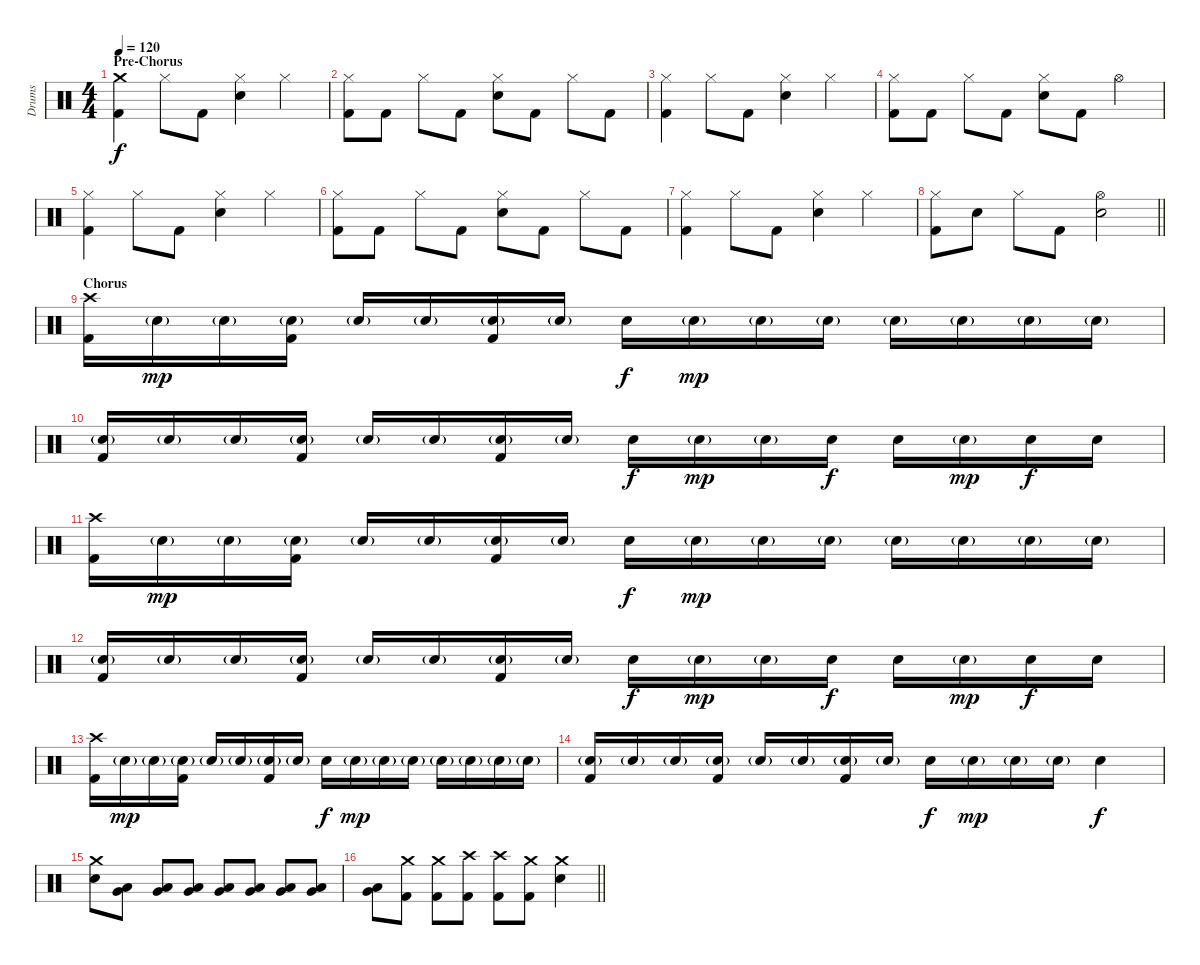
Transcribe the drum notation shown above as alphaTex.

\track ("Drums" "Drums") {instrument percussion}
\staff {score}
\articulation defaults
\ts (4 4)
\section ("" "Pre-Chorus")
\tempo 120
\clef neutral
\ks c
("Crash medium (hit)" "Kick (hit) 2").4{dy f} "Hi-Hat (closed)".8 "Kick (hit) 2".8 ("Hi-Hat (closed)" "Electric Snare (hit)").4 "Hi-Hat (closed)".4 |
("Hi-Hat (closed)" "Kick (hit) 2").8 "Kick (hit) 2".8 "Hi-Hat (closed)".8 "Kick (hit) 2".8 ("Hi-Hat (closed)" "Electric Snare (hit)").8 "Kick (hit) 2".8 "Hi-Hat (closed)".8 "Kick (hit) 2".8 |
("Hi-Hat (closed)" "Kick (hit) 2").4 "Hi-Hat (closed)".8 "Kick (hit) 2".8 ("Hi-Hat (closed)" "Electric Snare (hit)").4 "Hi-Hat (closed)".4 |
("Hi-Hat (closed)" "Kick (hit) 2").8 "Kick (hit) 2".8 "Hi-Hat (closed)".8 "Kick (hit) 2".8 ("Hi-Hat (closed)" "Electric Snare (hit)").8 "Kick (hit) 2".8 "Hi-Hat (open)".4 |
("Hi-Hat (closed)" "Kick (hit) 2").4 "Hi-Hat (closed)".8 "Kick (hit) 2".8 ("Hi-Hat (closed)" "Electric Snare (hit)").4 "Hi-Hat (closed)".4 |
("Hi-Hat (closed)" "Kick (hit) 2").8 "Kick (hit) 2".8 "Hi-Hat (closed)".8 "Kick (hit) 2".8 ("Hi-Hat (closed)" "Electric Snare (hit)").8 "Kick (hit) 2".8 "Hi-Hat (closed)".8 "Kick (hit) 2".8 |
("Hi-Hat (closed)" "Kick (hit) 2").4 "Hi-Hat (closed)".8 "Kick (hit) 2".8 ("Hi-Hat (closed)" "Electric Snare (hit)").4 "Hi-Hat (closed)".4 |
\barLineRight lightlight
("Hi-Hat (closed)" "Kick (hit) 2").8 "Electric Snare (hit)".8 "Hi-Hat (closed)".8 "Kick (hit) 2".8 ("Hi-Hat (open)" "Electric Snare (hit)").2 |
\section ("" "Chorus")
("Crash high (hit)" "Kick (hit) 2").16 "Electric Snare (hit)"{g}.16{dy mp} "Electric Snare (hit)"{g}.16 ("Electric Snare (hit)"{g} "Kick (hit) 2").16 "Electric Snare (hit)"{g}.16 "Electric Snare (hit)"{g}.16 ("Electric Snare (hit)"{g} "Kick (hit) 2").16 "Electric Snare (hit)"{g}.16 "Electric Snare (hit)".16{dy f} "Electric Snare (hit)"{g}.16{dy mp} "Electric Snare (hit)"{g}.16 "Electric Snare (hit)"{g}.16 "Electric Snare (hit)"{g}.16 "Electric Snare (hit)"{g}.16 "Electric Snare (hit)"{g}.16 "Electric Snare (hit)"{g}.16 |
("Electric Snare (hit)"{g} "Kick (hit) 2").16 "Electric Snare (hit)"{g}.16 "Electric Snare (hit)"{g}.16 ("Electric Snare (hit)"{g} "Kick (hit) 2").16 "Electric Snare (hit)"{g}.16 "Electric Snare (hit)"{g}.16 ("Electric Snare (hit)"{g} "Kick (hit) 2").16 "Electric Snare (hit)"{g}.16 "Electric Snare (hit)".16{dy f} "Electric Snare (hit)"{g}.16{dy mp} "Electric Snare (hit)"{g}.16 "Electric Snare (hit)".16{dy f} "Electric Snare (hit)".16 "Electric Snare (hit)"{g}.16{dy mp} "Electric Snare (hit)".16{dy f} "Electric Snare (hit)".16 |
("Crash high (hit)" "Kick (hit) 2").16 "Electric Snare (hit)"{g}.16{dy mp} "Electric Snare (hit)"{g}.16 ("Electric Snare (hit)"{g} "Kick (hit) 2").16 "Electric Snare (hit)"{g}.16 "Electric Snare (hit)"{g}.16 ("Electric Snare (hit)"{g} "Kick (hit) 2").16 "Electric Snare (hit)"{g}.16 "Electric Snare (hit)".16{dy f} "Electric Snare (hit)"{g}.16{dy mp} "Electric Snare (hit)"{g}.16 "Electric Snare (hit)"{g}.16 "Electric Snare (hit)"{g}.16 "Electric Snare (hit)"{g}.16 "Electric Snare (hit)"{g}.16 "Electric Snare (hit)"{g}.16 |
("Electric Snare (hit)"{g} "Kick (hit) 2").16 "Electric Snare (hit)"{g}.16 "Electric Snare (hit)"{g}.16 ("Electric Snare (hit)"{g} "Kick (hit) 2").16 "Electric Snare (hit)"{g}.16 "Electric Snare (hit)"{g}.16 ("Electric Snare (hit)"{g} "Kick (hit) 2").16 "Electric Snare (hit)"{g}.16 "Electric Snare (hit)".16{dy f} "Electric Snare (hit)"{g}.16{dy mp} "Electric Snare (hit)"{g}.16 "Electric Snare (hit)".16{dy f} "Electric Snare (hit)".16 "Electric Snare (hit)"{g}.16{dy mp} "Electric Snare (hit)".16{dy f} "Electric Snare (hit)".16 |
("Crash high (hit)" "Kick (hit) 2").16 "Electric Snare (hit)"{g}.16{dy mp} "Electric Snare (hit)"{g}.16 ("Electric Snare (hit)"{g} "Kick (hit) 2").16 "Electric Snare (hit)"{g}.16 "Electric Snare (hit)"{g}.16 ("Electric Snare (hit)"{g} "Kick (hit) 2").16 "Electric Snare (hit)"{g}.16 "Electric Snare (hit)".16{dy f} "Electric Snare (hit)"{g}.16{dy mp} "Electric Snare (hit)"{g}.16 "Electric Snare (hit)"{g}.16 "Electric Snare (hit)"{g}.16 "Electric Snare (hit)"{g}.16 "Electric Snare (hit)"{g}.16 "Electric Snare (hit)"{g}.16 |
("Electric Snare (hit)"{g} "Kick (hit) 2").16 "Electric Snare (hit)"{g}.16 "Electric Snare (hit)"{g}.16 ("Electric Snare (hit)"{g} "Kick (hit) 2").16 "Electric Snare (hit)"{g}.16 "Electric Snare (hit)"{g}.16 ("Electric Snare (hit)"{g} "Kick (hit) 2").16 "Electric Snare (hit)"{g}.16 "Electric Snare (hit)".16{dy f} "Electric Snare (hit)"{g}.16{dy mp} "Electric Snare (hit)"{g}.16 "Electric Snare (hit)"{g}.16 "Electric Snare (hit)".4{dy f} |
("Crash medium (hit)" "Electric Snare (hit)").8 ("Very Low Tom (hit)" "Low Floor Tom (hit)").8 ("Very Low Tom (hit)" "Low Floor Tom (hit)").8 ("Very Low Tom (hit)" "Low Floor Tom (hit)").8 ("Very Low Tom (hit)" "Low Floor Tom (hit)").8 ("Very Low Tom (hit)" "Low Floor Tom (hit)").8 ("Very Low Tom (hit)" "Low Floor Tom (hit)").8 ("Very Low Tom (hit)" "Low Floor Tom (hit)").8 |
\barLineRight lightlight
("Very Low Tom (hit)" "Low Floor Tom (hit)").8 ("Crash medium (hit)" "Kick (hit) 2").8 ("Crash medium (hit)" "Kick (hit) 2").8 ("Crash high (hit)" "Kick (hit) 2").8 ("Crash high (hit)" "Kick (hit) 2").8 ("Crash medium (hit)" "Kick (hit) 2").8 ("Crash medium (hit)" "Electric Snare (hit)").4
